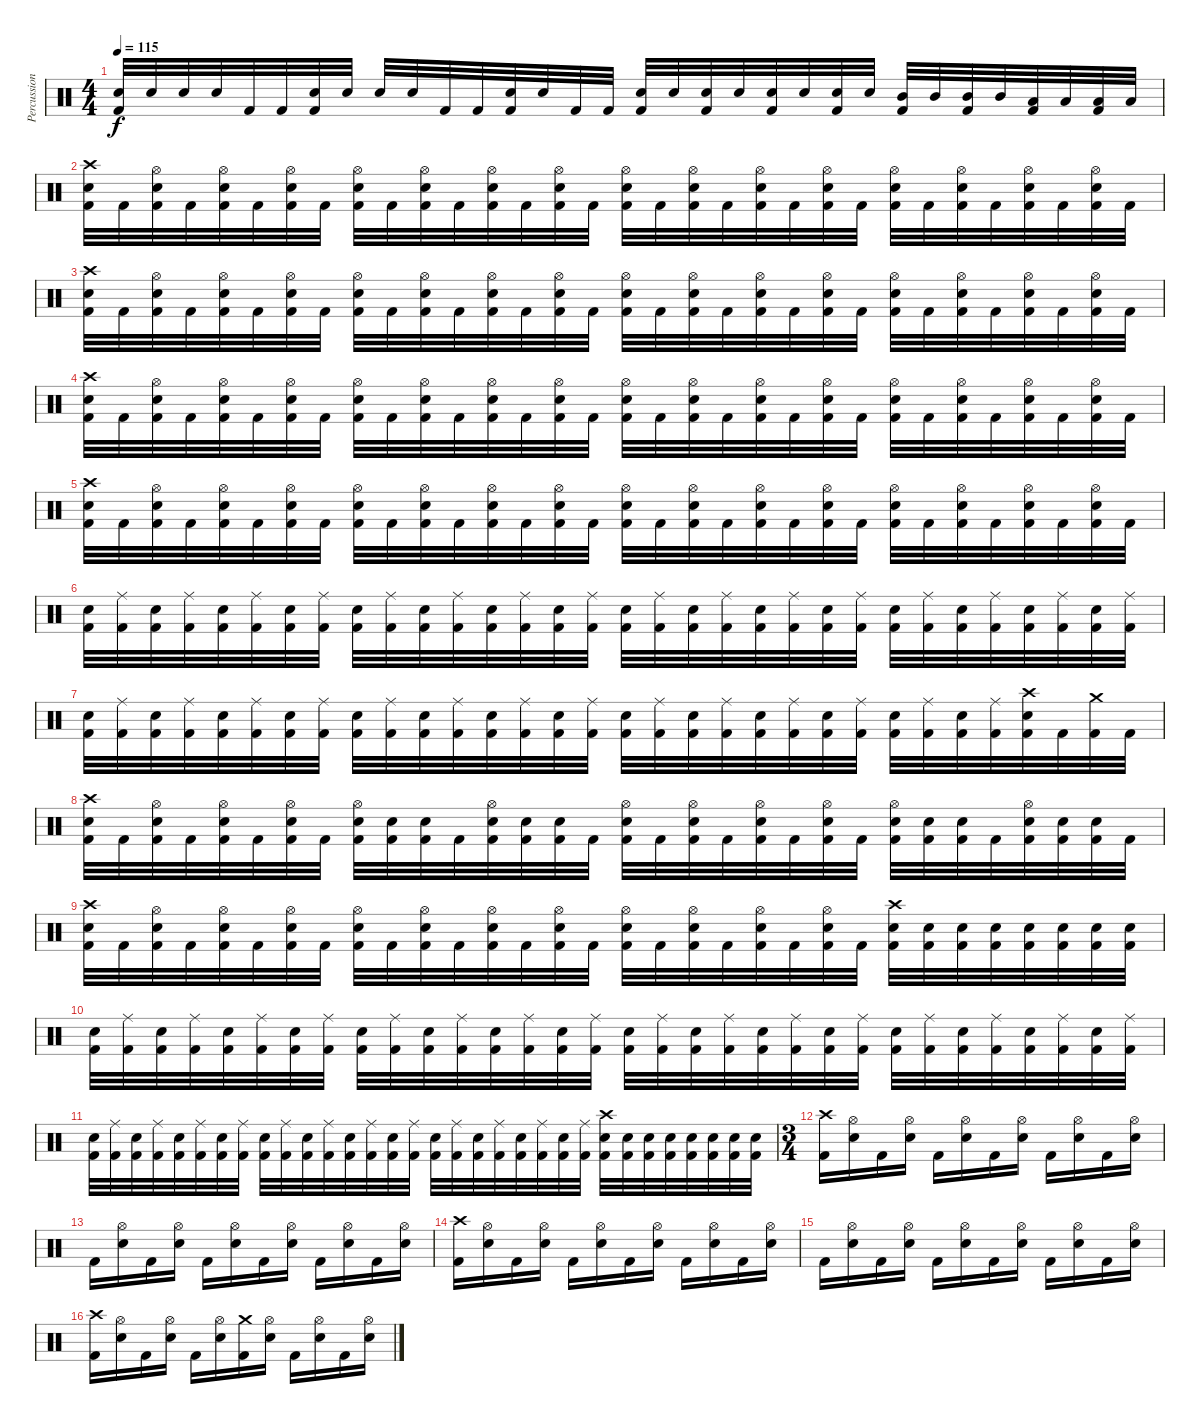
\track ("Percussion" "Percussion") {instrument percussion}
\staff {score}
\articulation defaults
\ts (4 4)
\tempo 115
\clef neutral
\ks c
("Electric Snare (hit)" "Kick (hit) 2").32{dy f} "Electric Snare (hit)".32 "Electric Snare (hit)".32 "Electric Snare (hit)".32 "Kick (hit) 2".32 "Kick (hit) 2".32 ("Electric Snare (hit)" "Kick (hit) 2").32 "Electric Snare (hit)".32 "Electric Snare (hit)".32 "Electric Snare (hit)".32 "Kick (hit) 2".32 "Kick (hit) 2".32 ("Electric Snare (hit)" "Kick (hit) 2").32 "Electric Snare (hit)".32 "Kick (hit) 2".32 "Kick (hit) 2".32 ("Electric Snare (hit)" "Kick (hit) 2").32 "Electric Snare (hit)".32 ("Electric Snare (hit)" "Kick (hit) 2").32 "Electric Snare (hit)".32 ("Electric Snare (hit)" "Kick (hit) 2").32 "Electric Snare (hit)".32 ("Electric Snare (hit)" "Kick (hit) 2").32 "Electric Snare (hit)".32 ("Mid Tom (hit)" "Kick (hit) 2").32 "Mid Tom (hit)".32 ("Mid Tom (hit)" "Kick (hit) 2").32 "Mid Tom (hit)".32 ("Low Tom (hit)" "Kick (hit) 2").32 "Low Tom (hit)".32 ("Low Tom (hit)" "Kick (hit) 2").32 "Low Tom (hit)".32 |
("Crash high (hit)" "Electric Snare (hit)" "Kick (hit) 2").32 "Kick (hit) 2".32 ("Hi-Hat (open)" "Electric Snare (hit)" "Kick (hit) 2").32 "Kick (hit) 2".32 ("Hi-Hat (open)" "Electric Snare (hit)" "Kick (hit) 2").32 "Kick (hit) 2".32 ("Hi-Hat (open)" "Electric Snare (hit)" "Kick (hit) 2").32 "Kick (hit) 2".32 ("Hi-Hat (open)" "Electric Snare (hit)" "Kick (hit) 2").32 "Kick (hit) 2".32 ("Hi-Hat (open)" "Electric Snare (hit)" "Kick (hit) 2").32 "Kick (hit) 2".32 ("Hi-Hat (open)" "Electric Snare (hit)" "Kick (hit) 2").32 "Kick (hit) 2".32 ("Hi-Hat (open)" "Electric Snare (hit)" "Kick (hit) 2").32 "Kick (hit) 2".32 ("Hi-Hat (open)" "Electric Snare (hit)" "Kick (hit) 2").32 "Kick (hit) 2".32 ("Hi-Hat (open)" "Electric Snare (hit)" "Kick (hit) 2").32 "Kick (hit) 2".32 ("Hi-Hat (open)" "Electric Snare (hit)" "Kick (hit) 2").32 "Kick (hit) 2".32 ("Hi-Hat (open)" "Electric Snare (hit)" "Kick (hit) 2").32 "Kick (hit) 2".32 ("Hi-Hat (open)" "Electric Snare (hit)" "Kick (hit) 2").32 "Kick (hit) 2".32 ("Hi-Hat (open)" "Electric Snare (hit)" "Kick (hit) 2").32 "Kick (hit) 2".32 ("Hi-Hat (open)" "Electric Snare (hit)" "Kick (hit) 2").32 "Kick (hit) 2".32 ("Hi-Hat (open)" "Electric Snare (hit)" "Kick (hit) 2").32 "Kick (hit) 2".32 |
("Crash high (hit)" "Electric Snare (hit)" "Kick (hit) 2").32 "Kick (hit) 2".32 ("Hi-Hat (open)" "Electric Snare (hit)" "Kick (hit) 2").32 "Kick (hit) 2".32 ("Hi-Hat (open)" "Electric Snare (hit)" "Kick (hit) 2").32 "Kick (hit) 2".32 ("Hi-Hat (open)" "Electric Snare (hit)" "Kick (hit) 2").32 "Kick (hit) 2".32 ("Hi-Hat (open)" "Electric Snare (hit)" "Kick (hit) 2").32 "Kick (hit) 2".32 ("Hi-Hat (open)" "Electric Snare (hit)" "Kick (hit) 2").32 "Kick (hit) 2".32 ("Hi-Hat (open)" "Electric Snare (hit)" "Kick (hit) 2").32 "Kick (hit) 2".32 ("Hi-Hat (open)" "Electric Snare (hit)" "Kick (hit) 2").32 "Kick (hit) 2".32 ("Hi-Hat (open)" "Electric Snare (hit)" "Kick (hit) 2").32 "Kick (hit) 2".32 ("Hi-Hat (open)" "Electric Snare (hit)" "Kick (hit) 2").32 "Kick (hit) 2".32 ("Hi-Hat (open)" "Electric Snare (hit)" "Kick (hit) 2").32 "Kick (hit) 2".32 ("Hi-Hat (open)" "Electric Snare (hit)" "Kick (hit) 2").32 "Kick (hit) 2".32 ("Hi-Hat (open)" "Electric Snare (hit)" "Kick (hit) 2").32 "Kick (hit) 2".32 ("Hi-Hat (open)" "Electric Snare (hit)" "Kick (hit) 2").32 "Kick (hit) 2".32 ("Hi-Hat (open)" "Electric Snare (hit)" "Kick (hit) 2").32 "Kick (hit) 2".32 ("Hi-Hat (open)" "Electric Snare (hit)" "Kick (hit) 2").32 "Kick (hit) 2".32 |
("Crash high (hit)" "Electric Snare (hit)" "Kick (hit) 2").32 "Kick (hit) 2".32 ("Hi-Hat (open)" "Electric Snare (hit)" "Kick (hit) 2").32 "Kick (hit) 2".32 ("Hi-Hat (open)" "Electric Snare (hit)" "Kick (hit) 2").32 "Kick (hit) 2".32 ("Hi-Hat (open)" "Electric Snare (hit)" "Kick (hit) 2").32 "Kick (hit) 2".32 ("Hi-Hat (open)" "Electric Snare (hit)" "Kick (hit) 2").32 "Kick (hit) 2".32 ("Hi-Hat (open)" "Electric Snare (hit)" "Kick (hit) 2").32 "Kick (hit) 2".32 ("Hi-Hat (open)" "Electric Snare (hit)" "Kick (hit) 2").32 "Kick (hit) 2".32 ("Hi-Hat (open)" "Electric Snare (hit)" "Kick (hit) 2").32 "Kick (hit) 2".32 ("Hi-Hat (open)" "Electric Snare (hit)" "Kick (hit) 2").32 "Kick (hit) 2".32 ("Hi-Hat (open)" "Electric Snare (hit)" "Kick (hit) 2").32 "Kick (hit) 2".32 ("Hi-Hat (open)" "Electric Snare (hit)" "Kick (hit) 2").32 "Kick (hit) 2".32 ("Hi-Hat (open)" "Electric Snare (hit)" "Kick (hit) 2").32 "Kick (hit) 2".32 ("Hi-Hat (open)" "Electric Snare (hit)" "Kick (hit) 2").32 "Kick (hit) 2".32 ("Hi-Hat (open)" "Electric Snare (hit)" "Kick (hit) 2").32 "Kick (hit) 2".32 ("Hi-Hat (open)" "Electric Snare (hit)" "Kick (hit) 2").32 "Kick (hit) 2".32 ("Hi-Hat (open)" "Electric Snare (hit)" "Kick (hit) 2").32 "Kick (hit) 2".32 |
("Crash high (hit)" "Electric Snare (hit)" "Kick (hit) 2").32 "Kick (hit) 2".32 ("Hi-Hat (open)" "Electric Snare (hit)" "Kick (hit) 2").32 "Kick (hit) 2".32 ("Hi-Hat (open)" "Electric Snare (hit)" "Kick (hit) 2").32 "Kick (hit) 2".32 ("Hi-Hat (open)" "Electric Snare (hit)" "Kick (hit) 2").32 "Kick (hit) 2".32 ("Hi-Hat (open)" "Electric Snare (hit)" "Kick (hit) 2").32 "Kick (hit) 2".32 ("Hi-Hat (open)" "Electric Snare (hit)" "Kick (hit) 2").32 "Kick (hit) 2".32 ("Hi-Hat (open)" "Electric Snare (hit)" "Kick (hit) 2").32 "Kick (hit) 2".32 ("Hi-Hat (open)" "Electric Snare (hit)" "Kick (hit) 2").32 "Kick (hit) 2".32 ("Hi-Hat (open)" "Electric Snare (hit)" "Kick (hit) 2").32 "Kick (hit) 2".32 ("Hi-Hat (open)" "Electric Snare (hit)" "Kick (hit) 2").32 "Kick (hit) 2".32 ("Hi-Hat (open)" "Electric Snare (hit)" "Kick (hit) 2").32 "Kick (hit) 2".32 ("Hi-Hat (open)" "Electric Snare (hit)" "Kick (hit) 2").32 "Kick (hit) 2".32 ("Hi-Hat (open)" "Electric Snare (hit)" "Kick (hit) 2").32 "Kick (hit) 2".32 ("Hi-Hat (open)" "Electric Snare (hit)" "Kick (hit) 2").32 "Kick (hit) 2".32 ("Hi-Hat (open)" "Electric Snare (hit)" "Kick (hit) 2").32 "Kick (hit) 2".32 ("Hi-Hat (open)" "Electric Snare (hit)" "Kick (hit) 2").32 "Kick (hit) 2".32 |
("Electric Snare (hit)" "Kick (hit) 2").32 ("Ride (middle)" "Kick (hit) 2").32 ("Electric Snare (hit)" "Kick (hit) 2").32 ("Ride (middle)" "Kick (hit) 2").32 ("Electric Snare (hit)" "Kick (hit) 2").32 ("Ride (middle)" "Kick (hit) 2").32 ("Electric Snare (hit)" "Kick (hit) 2").32 ("Ride (middle)" "Kick (hit) 2").32 ("Electric Snare (hit)" "Kick (hit) 2").32 ("Ride (middle)" "Kick (hit) 2").32 ("Electric Snare (hit)" "Kick (hit) 2").32 ("Ride (middle)" "Kick (hit) 2").32 ("Electric Snare (hit)" "Kick (hit) 2").32 ("Ride (middle)" "Kick (hit) 2").32 ("Electric Snare (hit)" "Kick (hit) 2").32 ("Ride (middle)" "Kick (hit) 2").32 ("Electric Snare (hit)" "Kick (hit) 2").32 ("Ride (middle)" "Kick (hit) 2").32 ("Electric Snare (hit)" "Kick (hit) 2").32 ("Ride (middle)" "Kick (hit) 2").32 ("Electric Snare (hit)" "Kick (hit) 2").32 ("Ride (middle)" "Kick (hit) 2").32 ("Electric Snare (hit)" "Kick (hit) 2").32 ("Ride (middle)" "Kick (hit) 2").32 ("Electric Snare (hit)" "Kick (hit) 2").32 ("Ride (middle)" "Kick (hit) 2").32 ("Electric Snare (hit)" "Kick (hit) 2").32 ("Ride (middle)" "Kick (hit) 2").32 ("Electric Snare (hit)" "Kick (hit) 2").32 ("Ride (middle)" "Kick (hit) 2").32 ("Electric Snare (hit)" "Kick (hit) 2").32 ("Ride (middle)" "Kick (hit) 2").32 |
("Electric Snare (hit)" "Kick (hit) 2").32 ("Ride (middle)" "Kick (hit) 2").32 ("Electric Snare (hit)" "Kick (hit) 2").32 ("Ride (middle)" "Kick (hit) 2").32 ("Electric Snare (hit)" "Kick (hit) 2").32 ("Ride (middle)" "Kick (hit) 2").32 ("Electric Snare (hit)" "Kick (hit) 2").32 ("Ride (middle)" "Kick (hit) 2").32 ("Electric Snare (hit)" "Kick (hit) 2").32 ("Ride (middle)" "Kick (hit) 2").32 ("Electric Snare (hit)" "Kick (hit) 2").32 ("Ride (middle)" "Kick (hit) 2").32 ("Electric Snare (hit)" "Kick (hit) 2").32 ("Ride (middle)" "Kick (hit) 2").32 ("Electric Snare (hit)" "Kick (hit) 2").32 ("Ride (middle)" "Kick (hit) 2").32 ("Electric Snare (hit)" "Kick (hit) 2").32 ("Ride (middle)" "Kick (hit) 2").32 ("Electric Snare (hit)" "Kick (hit) 2").32 ("Ride (middle)" "Kick (hit) 2").32 ("Electric Snare (hit)" "Kick (hit) 2").32 ("Ride (middle)" "Kick (hit) 2").32 ("Electric Snare (hit)" "Kick (hit) 2").32 ("Ride (middle)" "Kick (hit) 2").32 ("Electric Snare (hit)" "Kick (hit) 2").32 ("Ride (middle)" "Kick (hit) 2").32 ("Electric Snare (hit)" "Kick (hit) 2").32 ("Ride (middle)" "Kick (hit) 2").32 ("Crash high (hit)" "Electric Snare (hit)" "Kick (hit) 2").32 "Kick (hit) 2".32 ("Crash medium (hit)" "Kick (hit) 2").32 "Kick (hit) 2".32 |
("Crash high (hit)" "Electric Snare (hit)" "Kick (hit) 2").32 "Kick (hit) 2".32 ("Hi-Hat (open)" "Electric Snare (hit)" "Kick (hit) 2").32 "Kick (hit) 2".32 ("Hi-Hat (open)" "Electric Snare (hit)" "Kick (hit) 2").32 "Kick (hit) 2".32 ("Hi-Hat (open)" "Electric Snare (hit)" "Kick (hit) 2").32 "Kick (hit) 2".32 ("Hi-Hat (open)" "Electric Snare (hit)" "Kick (hit) 2").32 ("Electric Snare (hit)" "Kick (hit) 2").32 ("Electric Snare (hit)" "Kick (hit) 2").32 "Kick (hit) 2".32 ("Hi-Hat (open)" "Electric Snare (hit)" "Kick (hit) 2").32 ("Electric Snare (hit)" "Kick (hit) 2").32 ("Electric Snare (hit)" "Kick (hit) 2").32 "Kick (hit) 2".32 ("Hi-Hat (open)" "Electric Snare (hit)" "Kick (hit) 2").32 "Kick (hit) 2".32 ("Hi-Hat (open)" "Electric Snare (hit)" "Kick (hit) 2").32 "Kick (hit) 2".32 ("Hi-Hat (open)" "Electric Snare (hit)" "Kick (hit) 2").32 "Kick (hit) 2".32 ("Hi-Hat (open)" "Electric Snare (hit)" "Kick (hit) 2").32 "Kick (hit) 2".32 ("Hi-Hat (open)" "Electric Snare (hit)" "Kick (hit) 2").32 ("Electric Snare (hit)" "Kick (hit) 2").32 ("Electric Snare (hit)" "Kick (hit) 2").32 "Kick (hit) 2".32 ("Hi-Hat (open)" "Electric Snare (hit)" "Kick (hit) 2").32 ("Electric Snare (hit)" "Kick (hit) 2").32 ("Electric Snare (hit)" "Kick (hit) 2").32 "Kick (hit) 2".32 |
("Crash high (hit)" "Electric Snare (hit)" "Kick (hit) 2").32 "Kick (hit) 2".32 ("Hi-Hat (open)" "Electric Snare (hit)" "Kick (hit) 2").32 "Kick (hit) 2".32 ("Hi-Hat (open)" "Electric Snare (hit)" "Kick (hit) 2").32 "Kick (hit) 2".32 ("Hi-Hat (open)" "Electric Snare (hit)" "Kick (hit) 2").32 "Kick (hit) 2".32 ("Hi-Hat (open)" "Electric Snare (hit)" "Kick (hit) 2").32 "Kick (hit) 2".32 ("Hi-Hat (open)" "Electric Snare (hit)" "Kick (hit) 2").32 "Kick (hit) 2".32 ("Hi-Hat (open)" "Electric Snare (hit)" "Kick (hit) 2").32 "Kick (hit) 2".32 ("Hi-Hat (open)" "Electric Snare (hit)" "Kick (hit) 2").32 "Kick (hit) 2".32 ("Hi-Hat (open)" "Electric Snare (hit)" "Kick (hit) 2").32 "Kick (hit) 2".32 ("Hi-Hat (open)" "Electric Snare (hit)" "Kick (hit) 2").32 "Kick (hit) 2".32 ("Hi-Hat (open)" "Electric Snare (hit)" "Kick (hit) 2").32 "Kick (hit) 2".32 ("Hi-Hat (open)" "Electric Snare (hit)" "Kick (hit) 2").32 "Kick (hit) 2".32 ("Crash high (hit)" "Electric Snare (hit)" "Kick (hit) 2").32 ("Electric Snare (hit)" "Kick (hit) 2").32 ("Electric Snare (hit)" "Kick (hit) 2").32 ("Electric Snare (hit)" "Kick (hit) 2").32 ("Electric Snare (hit)" "Kick (hit) 2").32 ("Electric Snare (hit)" "Kick (hit) 2").32 ("Electric Snare (hit)" "Kick (hit) 2").32 ("Electric Snare (hit)" "Kick (hit) 2").32 |
("Electric Snare (hit)" "Kick (hit) 2").32 ("Ride (middle)" "Kick (hit) 2").32 ("Electric Snare (hit)" "Kick (hit) 2").32 ("Ride (middle)" "Kick (hit) 2").32 ("Electric Snare (hit)" "Kick (hit) 2").32 ("Ride (middle)" "Kick (hit) 2").32 ("Electric Snare (hit)" "Kick (hit) 2").32 ("Ride (middle)" "Kick (hit) 2").32 ("Electric Snare (hit)" "Kick (hit) 2").32 ("Ride (middle)" "Kick (hit) 2").32 ("Electric Snare (hit)" "Kick (hit) 2").32 ("Ride (middle)" "Kick (hit) 2").32 ("Electric Snare (hit)" "Kick (hit) 2").32 ("Ride (middle)" "Kick (hit) 2").32 ("Electric Snare (hit)" "Kick (hit) 2").32 ("Ride (middle)" "Kick (hit) 2").32 ("Electric Snare (hit)" "Kick (hit) 2").32 ("Ride (middle)" "Kick (hit) 2").32 ("Electric Snare (hit)" "Kick (hit) 2").32 ("Ride (middle)" "Kick (hit) 2").32 ("Electric Snare (hit)" "Kick (hit) 2").32 ("Ride (middle)" "Kick (hit) 2").32 ("Electric Snare (hit)" "Kick (hit) 2").32 ("Ride (middle)" "Kick (hit) 2").32 ("Electric Snare (hit)" "Kick (hit) 2").32 ("Ride (middle)" "Kick (hit) 2").32 ("Electric Snare (hit)" "Kick (hit) 2").32 ("Ride (middle)" "Kick (hit) 2").32 ("Electric Snare (hit)" "Kick (hit) 2").32 ("Ride (middle)" "Kick (hit) 2").32 ("Electric Snare (hit)" "Kick (hit) 2").32 ("Ride (middle)" "Kick (hit) 2").32 |
("Electric Snare (hit)" "Kick (hit) 2").32 ("Ride (middle)" "Kick (hit) 2").32 ("Electric Snare (hit)" "Kick (hit) 2").32 ("Ride (middle)" "Kick (hit) 2").32 ("Electric Snare (hit)" "Kick (hit) 2").32 ("Ride (middle)" "Kick (hit) 2").32 ("Electric Snare (hit)" "Kick (hit) 2").32 ("Ride (middle)" "Kick (hit) 2").32 ("Electric Snare (hit)" "Kick (hit) 2").32 ("Ride (middle)" "Kick (hit) 2").32 ("Electric Snare (hit)" "Kick (hit) 2").32 ("Ride (middle)" "Kick (hit) 2").32 ("Electric Snare (hit)" "Kick (hit) 2").32 ("Ride (middle)" "Kick (hit) 2").32 ("Electric Snare (hit)" "Kick (hit) 2").32 ("Ride (middle)" "Kick (hit) 2").32 ("Electric Snare (hit)" "Kick (hit) 2").32 ("Ride (middle)" "Kick (hit) 2").32 ("Electric Snare (hit)" "Kick (hit) 2").32 ("Ride (middle)" "Kick (hit) 2").32 ("Electric Snare (hit)" "Kick (hit) 2").32 ("Ride (middle)" "Kick (hit) 2").32 ("Electric Snare (hit)" "Kick (hit) 2").32 ("Ride (middle)" "Kick (hit) 2").32 ("Crash high (hit)" "Electric Snare (hit)" "Kick (hit) 2").32 ("Electric Snare (hit)" "Kick (hit) 2").32 ("Electric Snare (hit)" "Kick (hit) 2").32 ("Electric Snare (hit)" "Kick (hit) 2").32 ("Electric Snare (hit)" "Kick (hit) 2").32 ("Electric Snare (hit)" "Kick (hit) 2").32 ("Electric Snare (hit)" "Kick (hit) 2").32 ("Electric Snare (hit)" "Kick (hit) 2").32 |
\ts (3 4)
("Crash high (hit)" "Kick (hit) 2").16 ("Hi-Hat (open)" "Electric Snare (hit)").16 "Kick (hit) 2".16 ("Hi-Hat (open)" "Electric Snare (hit)").16 "Kick (hit) 2".16 ("Hi-Hat (open)" "Electric Snare (hit)").16 "Kick (hit) 2".16 ("Hi-Hat (open)" "Electric Snare (hit)").16 "Kick (hit) 2".16 ("Hi-Hat (open)" "Electric Snare (hit)").16 "Kick (hit) 2".16 ("Hi-Hat (open)" "Electric Snare (hit)").16 |
"Kick (hit) 2".16 ("Hi-Hat (open)" "Electric Snare (hit)").16 "Kick (hit) 2".16 ("Hi-Hat (open)" "Electric Snare (hit)").16 "Kick (hit) 2".16 ("Hi-Hat (open)" "Electric Snare (hit)").16 "Kick (hit) 2".16 ("Hi-Hat (open)" "Electric Snare (hit)").16 "Kick (hit) 2".16 ("Hi-Hat (open)" "Electric Snare (hit)").16 "Kick (hit) 2".16 ("Hi-Hat (open)" "Electric Snare (hit)").16 |
("Crash high (hit)" "Kick (hit) 2").16 ("Hi-Hat (open)" "Electric Snare (hit)").16 "Kick (hit) 2".16 ("Hi-Hat (open)" "Electric Snare (hit)").16 "Kick (hit) 2".16 ("Hi-Hat (open)" "Electric Snare (hit)").16 "Kick (hit) 2".16 ("Hi-Hat (open)" "Electric Snare (hit)").16 "Kick (hit) 2".16 ("Hi-Hat (open)" "Electric Snare (hit)").16 "Kick (hit) 2".16 ("Hi-Hat (open)" "Electric Snare (hit)").16 |
"Kick (hit) 2".16 ("Hi-Hat (open)" "Electric Snare (hit)").16 "Kick (hit) 2".16 ("Hi-Hat (open)" "Electric Snare (hit)").16 "Kick (hit) 2".16 ("Hi-Hat (open)" "Electric Snare (hit)").16 "Kick (hit) 2".16 ("Hi-Hat (open)" "Electric Snare (hit)").16 "Kick (hit) 2".16 ("Hi-Hat (open)" "Electric Snare (hit)").16 "Kick (hit) 2".16 ("Hi-Hat (open)" "Electric Snare (hit)").16 |
("Crash high (hit)" "Kick (hit) 2").16 ("Hi-Hat (open)" "Electric Snare (hit)").16 "Kick (hit) 2".16 ("Hi-Hat (open)" "Electric Snare (hit)").16 "Kick (hit) 2".16 ("Hi-Hat (open)" "Electric Snare (hit)").16 ("Crash medium (hit)" "Kick (hit) 2").16 ("Hi-Hat (open)" "Electric Snare (hit)").16 "Kick (hit) 2".16 ("Hi-Hat (open)" "Electric Snare (hit)").16 "Kick (hit) 2".16 ("Hi-Hat (open)" "Electric Snare (hit)").16
